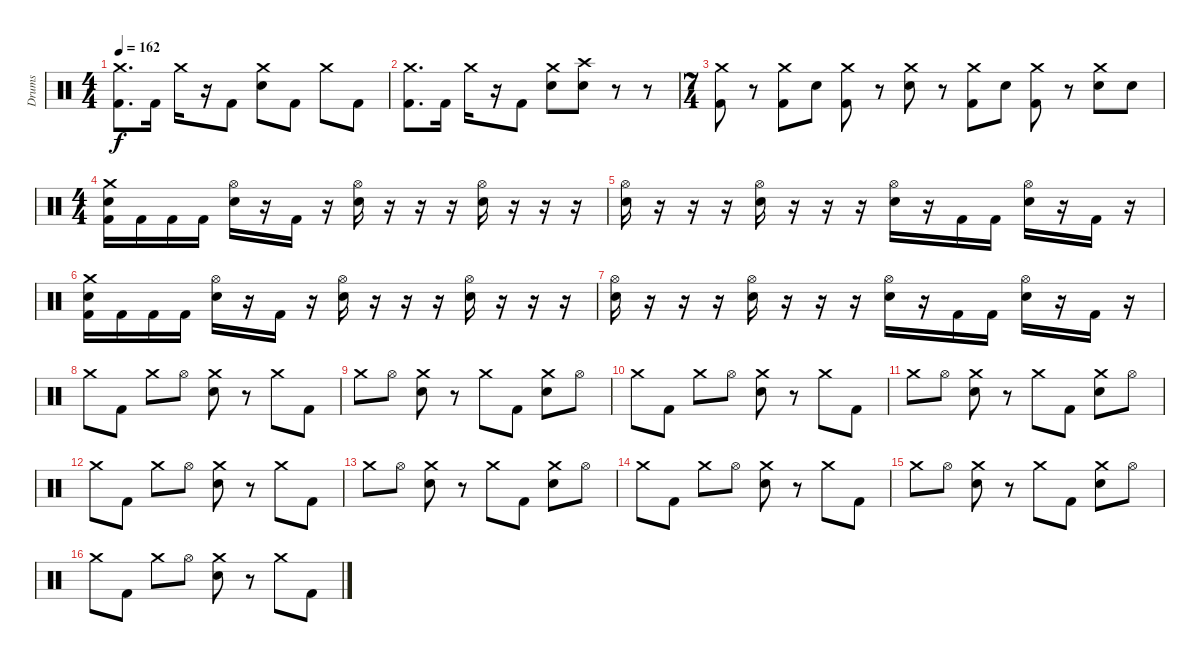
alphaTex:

\track ("Drums" "Drums") {instrument percussion}
\staff {score}
\articulation defaults
\ts (4 4)
\tempo 162
\clef neutral
\ks c
("Crash medium (hit)" "Kick (hit) 2").8{d dy f} "Kick (hit) 2".16 "Crash medium (hit)".16 r.16 "Kick (hit) 2".8 ("Crash medium (hit)" "Electric Snare (hit)").8 "Kick (hit) 2".8 "Crash medium (hit)".8 "Kick (hit) 2".8 |
("Crash medium (hit)" "Kick (hit) 2").8{d} "Kick (hit) 2".16 "Crash medium (hit)".16 r.16 "Kick (hit) 2".8 ("Crash medium (hit)" "Electric Snare (hit)").8 ("Crash high (hit)" "Electric Snare (hit)").8 r.8 r.8 |
\ts (7 4)
("Crash medium (hit)" "Kick (hit) 2").8 r.8 ("Crash medium (hit)" "Kick (hit) 2").8 "Electric Snare (hit)".8 ("Crash medium (hit)" "Kick (hit) 2").8 r.8 ("Crash medium (hit)" "Electric Snare (hit)").8 r.8 ("Crash medium (hit)" "Kick (hit) 2").8 "Electric Snare (hit)".8 ("Crash medium (hit)" "Kick (hit) 2").8 r.8 ("Crash medium (hit)" "Electric Snare (hit)").8 "Electric Snare (hit)".8 |
\ts (4 4)
("Crash medium (hit)" "Electric Snare (hit)" "Kick (hit) 2").16 "Kick (hit) 2".16 "Kick (hit) 2".16 "Kick (hit) 2".16 ("Hi-Hat (open)" "Electric Snare (hit)").16 r.16 "Kick (hit) 2".16 r.16 ("Hi-Hat (open)" "Electric Snare (hit)").16 r.16 r.16 r.16 ("Hi-Hat (open)" "Electric Snare (hit)").16 r.16 r.16 r.16 |
("Hi-Hat (open)" "Electric Snare (hit)").16 r.16 r.16 r.16 ("Hi-Hat (open)" "Electric Snare (hit)").16 r.16 r.16 r.16 ("Hi-Hat (open)" "Electric Snare (hit)").16 r.16 "Kick (hit) 2".16 "Kick (hit) 2".16 ("Hi-Hat (open)" "Electric Snare (hit)").16 r.16 "Kick (hit) 2".16 r.16 |
("Crash medium (hit)" "Electric Snare (hit)" "Kick (hit) 2").16 "Kick (hit) 2".16 "Kick (hit) 2".16 "Kick (hit) 2".16 ("Hi-Hat (open)" "Electric Snare (hit)").16 r.16 "Kick (hit) 2".16 r.16 ("Hi-Hat (open)" "Electric Snare (hit)").16 r.16 r.16 r.16 ("Hi-Hat (open)" "Electric Snare (hit)").16 r.16 r.16 r.16 |
("Hi-Hat (open)" "Electric Snare (hit)").16 r.16 r.16 r.16 ("Hi-Hat (open)" "Electric Snare (hit)").16 r.16 r.16 r.16 ("Hi-Hat (open)" "Electric Snare (hit)").16 r.16 "Kick (hit) 2".16 "Kick (hit) 2".16 ("Hi-Hat (open)" "Electric Snare (hit)").16 r.16 "Kick (hit) 2".16 r.16 |
"Crash medium (hit)".8 "Kick (hit) 2".8 "Crash medium (hit)".8 "Hi-Hat (open)".8 ("Crash medium (hit)" "Electric Snare (hit)").8 r.8 "Crash medium (hit)".8 "Kick (hit) 2".8 |
"Crash medium (hit)".8 "Hi-Hat (open)".8 ("Crash medium (hit)" "Electric Snare (hit)").8 r.8 "Crash medium (hit)".8 "Kick (hit) 2".8 ("Crash medium (hit)" "Electric Snare (hit)").8 "Hi-Hat (open)".8 |
"Crash medium (hit)".8 "Kick (hit) 2".8 "Crash medium (hit)".8 "Hi-Hat (open)".8 ("Crash medium (hit)" "Electric Snare (hit)").8 r.8 "Crash medium (hit)".8 "Kick (hit) 2".8 |
"Crash medium (hit)".8 "Hi-Hat (open)".8 ("Crash medium (hit)" "Electric Snare (hit)").8 r.8 "Crash medium (hit)".8 "Kick (hit) 2".8 ("Crash medium (hit)" "Electric Snare (hit)").8 "Hi-Hat (open)".8 |
"Crash medium (hit)".8 "Kick (hit) 2".8 "Crash medium (hit)".8 "Hi-Hat (open)".8 ("Crash medium (hit)" "Electric Snare (hit)").8 r.8 "Crash medium (hit)".8 "Kick (hit) 2".8 |
"Crash medium (hit)".8 "Hi-Hat (open)".8 ("Crash medium (hit)" "Electric Snare (hit)").8 r.8 "Crash medium (hit)".8 "Kick (hit) 2".8 ("Crash medium (hit)" "Electric Snare (hit)").8 "Hi-Hat (open)".8 |
"Crash medium (hit)".8 "Kick (hit) 2".8 "Crash medium (hit)".8 "Hi-Hat (open)".8 ("Crash medium (hit)" "Electric Snare (hit)").8 r.8 "Crash medium (hit)".8 "Kick (hit) 2".8 |
"Crash medium (hit)".8 "Hi-Hat (open)".8 ("Crash medium (hit)" "Electric Snare (hit)").8 r.8 "Crash medium (hit)".8 "Kick (hit) 2".8 ("Crash medium (hit)" "Electric Snare (hit)").8 "Hi-Hat (open)".8 |
"Crash medium (hit)".8 "Kick (hit) 2".8 "Crash medium (hit)".8 "Hi-Hat (open)".8 ("Crash medium (hit)" "Electric Snare (hit)").8 r.8 "Crash medium (hit)".8 "Kick (hit) 2".8
